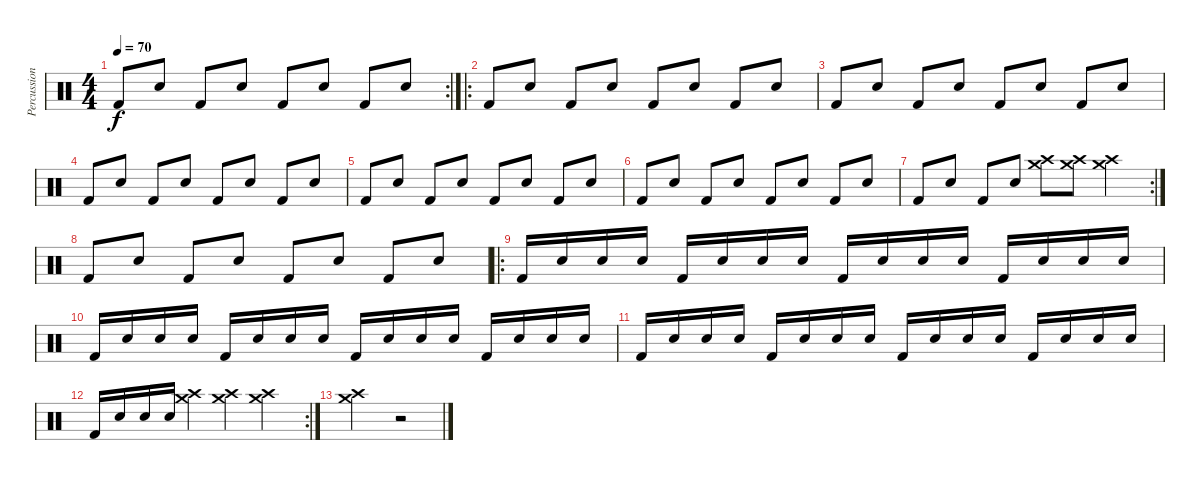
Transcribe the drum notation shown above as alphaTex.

\track ("Percussion" "Percussion") {instrument percussion}
\staff {score}
\articulation defaults
\rc 2
\ts (4 4)
\tempo 70
\clef neutral
\ks c "Kick (hit) 2".8{dy f} "Electric Snare (hit)".8 "Kick (hit) 2".8 "Electric Snare (hit)".8 "Kick (hit) 2".8 "Electric Snare (hit)".8 "Kick (hit) 2".8 "Electric Snare (hit)".8
|
\ro "Kick (hit) 2".8 "Electric Snare (hit)".8 "Kick (hit) 2".8 "Electric Snare (hit)".8 "Kick (hit) 2".8 "Electric Snare (hit)".8 "Kick (hit) 2".8 "Electric Snare (hit)".8
|
"Kick (hit) 2".8 "Electric Snare (hit)".8 "Kick (hit) 2".8 "Electric Snare (hit)".8 "Kick (hit) 2".8 "Electric Snare (hit)".8 "Kick (hit) 2".8 "Electric Snare (hit)".8 |
"Kick (hit) 2".8 "Electric Snare (hit)".8 "Kick (hit) 2".8 "Electric Snare (hit)".8 "Kick (hit) 2".8 "Electric Snare (hit)".8 "Kick (hit) 2".8 "Electric Snare (hit)".8 |
"Kick (hit) 2".8 "Electric Snare (hit)".8 "Kick (hit) 2".8 "Electric Snare (hit)".8 "Kick (hit) 2".8 "Electric Snare (hit)".8 "Kick (hit) 2".8 "Electric Snare (hit)".8 |
"Kick (hit) 2".8 "Electric Snare (hit)".8 "Kick (hit) 2".8 "Electric Snare (hit)".8 "Kick (hit) 2".8 "Electric Snare (hit)".8 "Kick (hit) 2".8 "Electric Snare (hit)".8 |
\rc 2 "Kick (hit) 2".8 "Electric Snare (hit)".8 "Kick (hit) 2".8 "Electric Snare (hit)".8
("Crash high (hit)" "Crash medium (hit)").8 ("Crash high (hit)" "Crash medium (hit)").8 ("Crash high (hit)" "Crash medium (hit)").4 |
"Kick (hit) 2".8 "Electric Snare (hit)".8 "Kick (hit) 2".8 "Electric Snare (hit)".8 "Kick (hit) 2".8 "Electric Snare (hit)".8 "Kick (hit) 2".8 "Electric Snare (hit)".8 |
\ro "Kick (hit) 2".16 "Electric Snare (hit)".16 "Electric Snare (hit)".16 "Electric Snare (hit)".16 "Kick (hit) 2".16 "Electric Snare (hit)".16 "Electric Snare (hit)".16 "Electric Snare (hit)".16 "Kick (hit) 2".16 "Electric Snare (hit)".16 "Electric Snare (hit)".16 "Electric Snare (hit)".16 "Kick (hit) 2".16 "Electric Snare (hit)".16 "Electric Snare (hit)".16 "Electric Snare (hit)".16
|
"Kick (hit) 2".16 "Electric Snare (hit)".16 "Electric Snare (hit)".16 "Electric Snare (hit)".16 "Kick (hit) 2".16 "Electric Snare (hit)".16 "Electric Snare (hit)".16 "Electric Snare (hit)".16 "Kick (hit) 2".16 "Electric Snare (hit)".16 "Electric Snare (hit)".16 "Electric Snare (hit)".16 "Kick (hit) 2".16 "Electric Snare (hit)".16 "Electric Snare (hit)".16 "Electric Snare (hit)".16 |
"Kick (hit) 2".16 "Electric Snare (hit)".16 "Electric Snare (hit)".16 "Electric Snare (hit)".16 "Kick (hit) 2".16 "Electric Snare (hit)".16 "Electric Snare (hit)".16 "Electric Snare (hit)".16 "Kick (hit) 2".16 "Electric Snare (hit)".16 "Electric Snare (hit)".16 "Electric Snare (hit)".16 "Kick (hit) 2".16 "Electric Snare (hit)".16 "Electric Snare (hit)".16 "Electric Snare (hit)".16 |
\rc 2 "Kick (hit) 2".16 "Electric Snare (hit)".16 "Electric Snare (hit)".16 "Electric Snare (hit)".16
("Crash high (hit)" "Crash medium (hit)").4 ("Crash high (hit)" "Crash medium (hit)").4 ("Crash high (hit)" "Crash medium (hit)").4 |
("Crash high (hit)" "Crash medium (hit)").2 r.2
